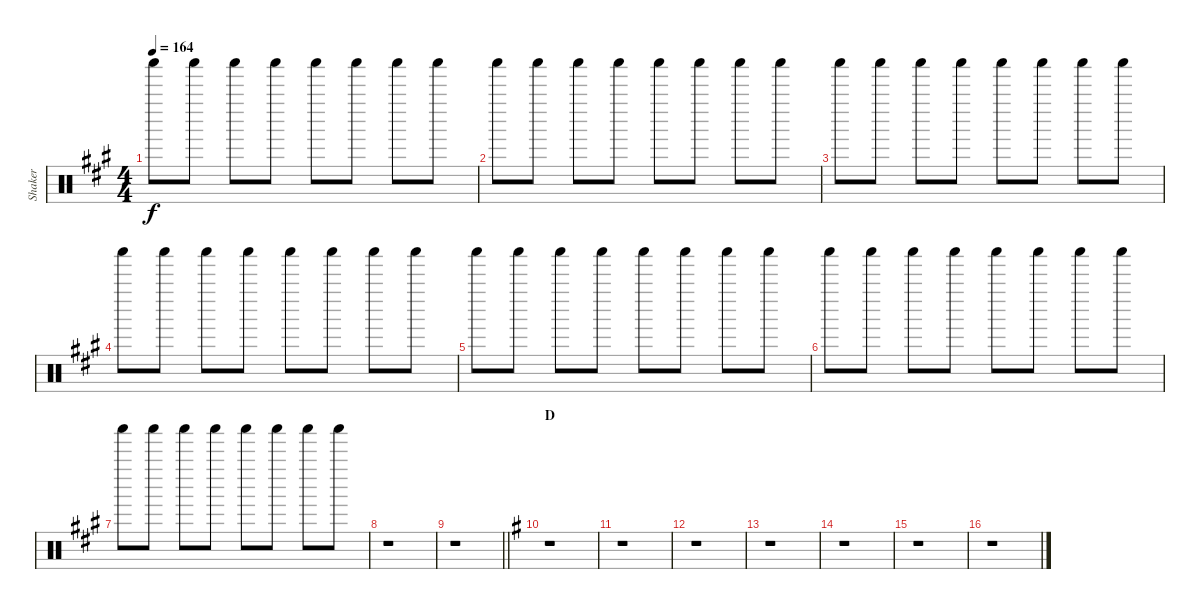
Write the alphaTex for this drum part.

\track ("Shaker" "Shaker") {instrument percussion}
\staff {score}
\articulation defaults
\ts (4 4)
\tempo 164
\clef neutral
\ks a "Shaker (hit)".8{dy f} "Shaker (hit)".8 "Shaker (hit)".8 "Shaker (hit)".8 "Shaker (hit)".8 "Shaker (hit)".8 "Shaker (hit)".8 "Shaker (hit)".8
|
"Shaker (hit)".8 "Shaker (hit)".8 "Shaker (hit)".8 "Shaker (hit)".8 "Shaker (hit)".8 "Shaker (hit)".8 "Shaker (hit)".8 "Shaker (hit)".8 |
"Shaker (hit)".8 "Shaker (hit)".8 "Shaker (hit)".8 "Shaker (hit)".8 "Shaker (hit)".8 "Shaker (hit)".8 "Shaker (hit)".8 "Shaker (hit)".8 |
"Shaker (hit)".8 "Shaker (hit)".8 "Shaker (hit)".8 "Shaker (hit)".8 "Shaker (hit)".8 "Shaker (hit)".8 "Shaker (hit)".8 "Shaker (hit)".8 |
"Shaker (hit)".8 "Shaker (hit)".8 "Shaker (hit)".8 "Shaker (hit)".8 "Shaker (hit)".8 "Shaker (hit)".8 "Shaker (hit)".8 "Shaker (hit)".8 |
"Shaker (hit)".8 "Shaker (hit)".8 "Shaker (hit)".8 "Shaker (hit)".8 "Shaker (hit)".8 "Shaker (hit)".8 "Shaker (hit)".8 "Shaker (hit)".8 |
"Shaker (hit)".8 "Shaker (hit)".8 "Shaker (hit)".8 "Shaker (hit)".8 "Shaker (hit)".8 "Shaker (hit)".8 "Shaker (hit)".8 "Shaker (hit)".8 |
r.1 |
\barLineRight lightlight
r.1 |
\section ("" "D")
\ks g
r.1 |
r.1 |
r.1 |
r.1 |
r.1 |
r.1 |
r.1
